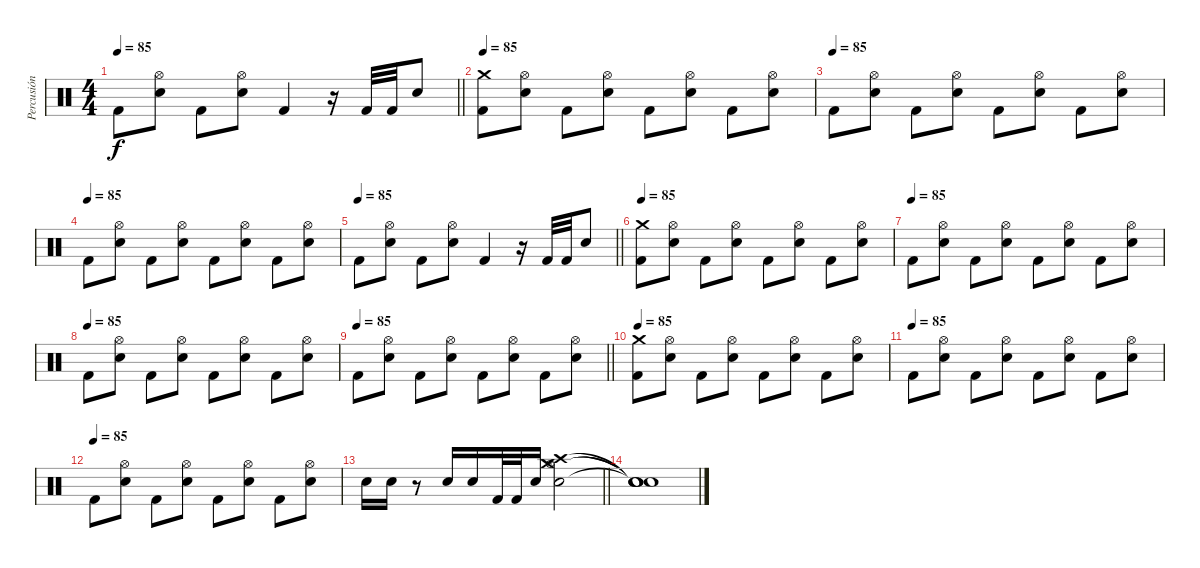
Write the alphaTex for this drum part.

\track ("Percusión" "Percusión") {instrument percussion}
\staff {score}
\articulation defaults
\ts (4 4)
\tempo 85
\clef neutral
\barLineRight lightlight
\ks c "Kick (hit) 2".8{dy f}
("Hi-Hat (open)" "Electric Snare (hit)").8 "Kick (hit) 2".8 ("Hi-Hat (open)" "Electric Snare (hit)").8 "Kick (hit) 2".4 r.16 "Kick (hit) 2".32 "Kick (hit) 2".32 "Electric Snare (hit)".8 |
\tempo 85
("Crash medium (hit)" "Kick (hit) 2").8 ("Hi-Hat (open)" "Electric Snare (hit)").8 "Kick (hit) 2".8 ("Hi-Hat (open)" "Electric Snare (hit)").8 "Kick (hit) 2".8 ("Hi-Hat (open)" "Electric Snare (hit)").8 "Kick (hit) 2".8 ("Hi-Hat (open)" "Electric Snare (hit)").8 |
\tempo (85)
"Kick (hit) 2".8 ("Hi-Hat (open)" "Electric Snare (hit)").8 "Kick (hit) 2".8 ("Hi-Hat (open)" "Electric Snare (hit)").8 "Kick (hit) 2".8 ("Hi-Hat (open)" "Electric Snare (hit)").8 "Kick (hit) 2".8 ("Hi-Hat (open)" "Electric Snare (hit)").8 |
\tempo (85)
"Kick (hit) 2".8 ("Hi-Hat (open)" "Electric Snare (hit)").8 "Kick (hit) 2".8 ("Hi-Hat (open)" "Electric Snare (hit)").8 "Kick (hit) 2".8 ("Hi-Hat (open)" "Electric Snare (hit)").8 "Kick (hit) 2".8 ("Hi-Hat (open)" "Electric Snare (hit)").8 |
\tempo 85
\barLineRight lightlight "Kick (hit) 2".8
("Hi-Hat (open)" "Electric Snare (hit)").8 "Kick (hit) 2".8 ("Hi-Hat (open)" "Electric Snare (hit)").8 "Kick (hit) 2".4 r.16 "Kick (hit) 2".32 "Kick (hit) 2".32 "Electric Snare (hit)".8 |
\section ("" "")
\tempo 85
("Crash medium (hit)" "Kick (hit) 2").8 ("Hi-Hat (open)" "Electric Snare (hit)").8 "Kick (hit) 2".8 ("Hi-Hat (open)" "Electric Snare (hit)").8 "Kick (hit) 2".8 ("Hi-Hat (open)" "Electric Snare (hit)").8 "Kick (hit) 2".8 ("Hi-Hat (open)" "Electric Snare (hit)").8 |
\tempo (85)
"Kick (hit) 2".8 ("Hi-Hat (open)" "Electric Snare (hit)").8 "Kick (hit) 2".8 ("Hi-Hat (open)" "Electric Snare (hit)").8 "Kick (hit) 2".8 ("Hi-Hat (open)" "Electric Snare (hit)").8 "Kick (hit) 2".8 ("Hi-Hat (open)" "Electric Snare (hit)").8 |
\tempo (85)
"Kick (hit) 2".8 ("Hi-Hat (open)" "Electric Snare (hit)").8 "Kick (hit) 2".8 ("Hi-Hat (open)" "Electric Snare (hit)").8 "Kick (hit) 2".8 ("Hi-Hat (open)" "Electric Snare (hit)").8 "Kick (hit) 2".8 ("Hi-Hat (open)" "Electric Snare (hit)").8 |
\tempo 85
\barLineRight lightlight "Kick (hit) 2".8
("Hi-Hat (open)" "Electric Snare (hit)").8 "Kick (hit) 2".8 ("Hi-Hat (open)" "Electric Snare (hit)").8 "Kick (hit) 2".8 ("Hi-Hat (open)" "Electric Snare (hit)").8 "Kick (hit) 2".8 ("Hi-Hat (open)" "Electric Snare (hit)").8 |
\tempo 85
("Crash medium (hit)" "Kick (hit) 2").8 ("Hi-Hat (open)" "Electric Snare (hit)").8 "Kick (hit) 2".8 ("Hi-Hat (open)" "Electric Snare (hit)").8 "Kick (hit) 2".8 ("Hi-Hat (open)" "Electric Snare (hit)").8 "Kick (hit) 2".8 ("Hi-Hat (open)" "Electric Snare (hit)").8 |
\tempo (85)
"Kick (hit) 2".8 ("Hi-Hat (open)" "Electric Snare (hit)").8 "Kick (hit) 2".8 ("Hi-Hat (open)" "Electric Snare (hit)").8 "Kick (hit) 2".8 ("Hi-Hat (open)" "Electric Snare (hit)").8 "Kick (hit) 2".8 ("Hi-Hat (open)" "Electric Snare (hit)").8 |
\tempo (85)
"Kick (hit) 2".8 ("Hi-Hat (open)" "Electric Snare (hit)").8 "Kick (hit) 2".8 ("Hi-Hat (open)" "Electric Snare (hit)").8 "Kick (hit) 2".8 ("Hi-Hat (open)" "Electric Snare (hit)").8 "Kick (hit) 2".8 ("Hi-Hat (open)" "Electric Snare (hit)").8 |
\barLineRight lightlight "Electric Snare (hit)".16 "Electric Snare (hit)".16
r.8 "Electric Snare (hit)".16 "Electric Snare (hit)".16 "Kick (hit) 2".32 "Kick (hit) 2".32 "Electric Snare (hit)".16 ("Crash high (hit)" "Hi-Hat (open)" "Crash medium (hit)" "Electric Snare (hit)").2 |
("Snare (hit)"{t} "Snare (hit)"{t} "Snare (hit)"{t} "Snare (hit)"{t}).1
